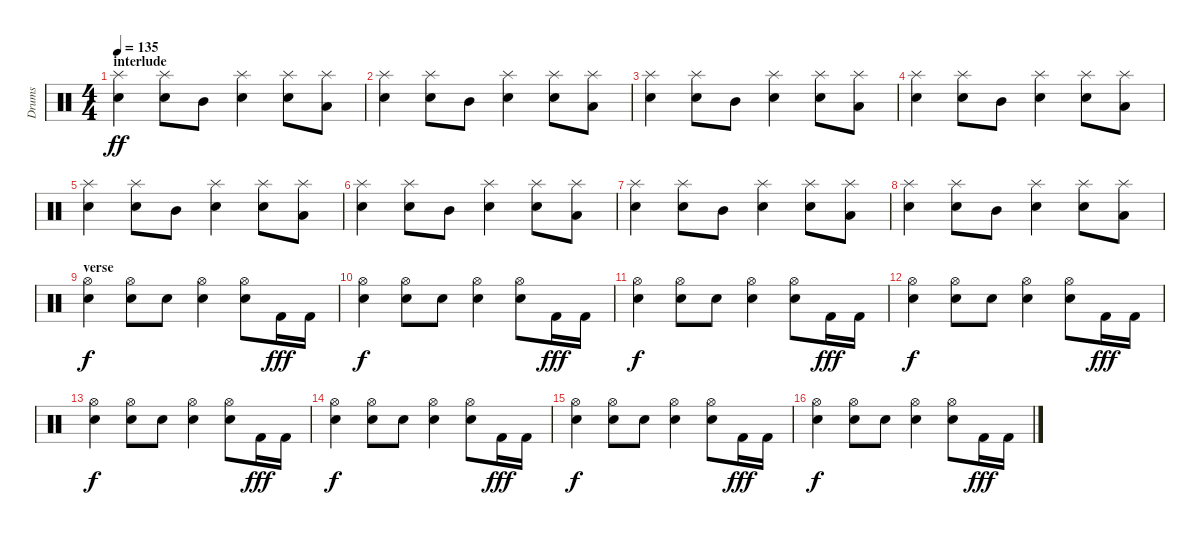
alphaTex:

\track ("Drums" "Drums") {instrument percussion}
\staff {score}
\articulation defaults
\ts (4 4)
\section ("" "interlude")
\tempo 135
\clef neutral
\ks c
("Splash (hit)" "Snare (hit) 2").4{dy ff} ("Splash (hit)" "Snare (hit) 2").8 "Mid Tom (hit)".8 ("Splash (hit)" "Snare (hit) 2").4 ("Snare (hit) 2" "Splash (hit)").8 ("Low Tom (hit)" "Splash (hit)").8 |
("Splash (hit)" "Snare (hit) 2").4 ("Splash (hit)" "Snare (hit) 2").8 "Mid Tom (hit)".8 ("Splash (hit)" "Snare (hit) 2").4 ("Snare (hit) 2" "Splash (hit)").8 ("Low Tom (hit)" "Splash (hit)").8 |
("Splash (hit)" "Snare (hit) 2").4 ("Splash (hit)" "Snare (hit) 2").8 "Mid Tom (hit)".8 ("Splash (hit)" "Snare (hit) 2").4 ("Snare (hit) 2" "Splash (hit)").8 ("Low Tom (hit)" "Splash (hit)").8 |
("Splash (hit)" "Snare (hit) 2").4 ("Splash (hit)" "Snare (hit) 2").8 "Mid Tom (hit)".8 ("Splash (hit)" "Snare (hit) 2").4 ("Snare (hit) 2" "Splash (hit)").8 ("Low Tom (hit)" "Splash (hit)").8 |
("Splash (hit)" "Snare (hit) 2").4 ("Splash (hit)" "Snare (hit) 2").8 "Mid Tom (hit)".8 ("Splash (hit)" "Snare (hit) 2").4 ("Snare (hit) 2" "Splash (hit)").8 ("Low Tom (hit)" "Splash (hit)").8 |
("Splash (hit)" "Snare (hit) 2").4 ("Splash (hit)" "Snare (hit) 2").8 "Mid Tom (hit)".8 ("Splash (hit)" "Snare (hit) 2").4 ("Snare (hit) 2" "Splash (hit)").8 ("Low Tom (hit)" "Splash (hit)").8 |
("Splash (hit)" "Snare (hit) 2").4 ("Splash (hit)" "Snare (hit) 2").8 "Mid Tom (hit)".8 ("Splash (hit)" "Snare (hit) 2").4 ("Snare (hit) 2" "Splash (hit)").8 ("Low Tom (hit)" "Splash (hit)").8 |
("Splash (hit)" "Snare (hit) 2").4 ("Splash (hit)" "Snare (hit) 2").8 "Mid Tom (hit)".8 ("Splash (hit)" "Snare (hit) 2").4 ("Snare (hit) 2" "Splash (hit)").8 ("Low Tom (hit)" "Splash (hit)").8 |
\section ("" "verse")
("Electric Snare (hit)" "Hi-Hat (open)").4{dy f} ("Electric Snare (hit)" "Hi-Hat (open)").8 "Snare (hit) 2".8 ("Hi-Hat (open)" "Electric Snare (hit)").4 ("Electric Snare (hit)" "Hi-Hat (open)").8 "Kick (hit) 2".16{dy fff} "Kick (hit) 2".16 |
("Electric Snare (hit)" "Hi-Hat (open)").4{dy f} ("Electric Snare (hit)" "Hi-Hat (open)").8 "Snare (hit) 2".8 ("Hi-Hat (open)" "Electric Snare (hit)").4 ("Electric Snare (hit)" "Hi-Hat (open)").8 "Kick (hit) 2".16{dy fff} "Kick (hit) 2".16 |
("Electric Snare (hit)" "Hi-Hat (open)").4{dy f} ("Electric Snare (hit)" "Hi-Hat (open)").8 "Snare (hit) 2".8 ("Hi-Hat (open)" "Electric Snare (hit)").4 ("Electric Snare (hit)" "Hi-Hat (open)").8 "Kick (hit) 2".16{dy fff} "Kick (hit) 2".16 |
("Electric Snare (hit)" "Hi-Hat (open)").4{dy f} ("Electric Snare (hit)" "Hi-Hat (open)").8 "Snare (hit) 2".8 ("Hi-Hat (open)" "Electric Snare (hit)").4 ("Electric Snare (hit)" "Hi-Hat (open)").8 "Kick (hit) 2".16{dy fff} "Kick (hit) 2".16 |
("Electric Snare (hit)" "Hi-Hat (open)").4{dy f} ("Electric Snare (hit)" "Hi-Hat (open)").8 "Snare (hit) 2".8 ("Hi-Hat (open)" "Electric Snare (hit)").4 ("Electric Snare (hit)" "Hi-Hat (open)").8 "Kick (hit) 2".16{dy fff} "Kick (hit) 2".16 |
("Electric Snare (hit)" "Hi-Hat (open)").4{dy f} ("Electric Snare (hit)" "Hi-Hat (open)").8 "Snare (hit) 2".8 ("Hi-Hat (open)" "Electric Snare (hit)").4 ("Electric Snare (hit)" "Hi-Hat (open)").8 "Kick (hit) 2".16{dy fff} "Kick (hit) 2".16 |
("Electric Snare (hit)" "Hi-Hat (open)").4{dy f} ("Electric Snare (hit)" "Hi-Hat (open)").8 "Snare (hit) 2".8 ("Hi-Hat (open)" "Electric Snare (hit)").4 ("Electric Snare (hit)" "Hi-Hat (open)").8 "Kick (hit) 2".16{dy fff} "Kick (hit) 2".16 |
("Electric Snare (hit)" "Hi-Hat (open)").4{dy f} ("Electric Snare (hit)" "Hi-Hat (open)").8 "Snare (hit) 2".8 ("Hi-Hat (open)" "Electric Snare (hit)").4 ("Electric Snare (hit)" "Hi-Hat (open)").8 "Kick (hit) 2".16{dy fff} "Kick (hit) 2".16
